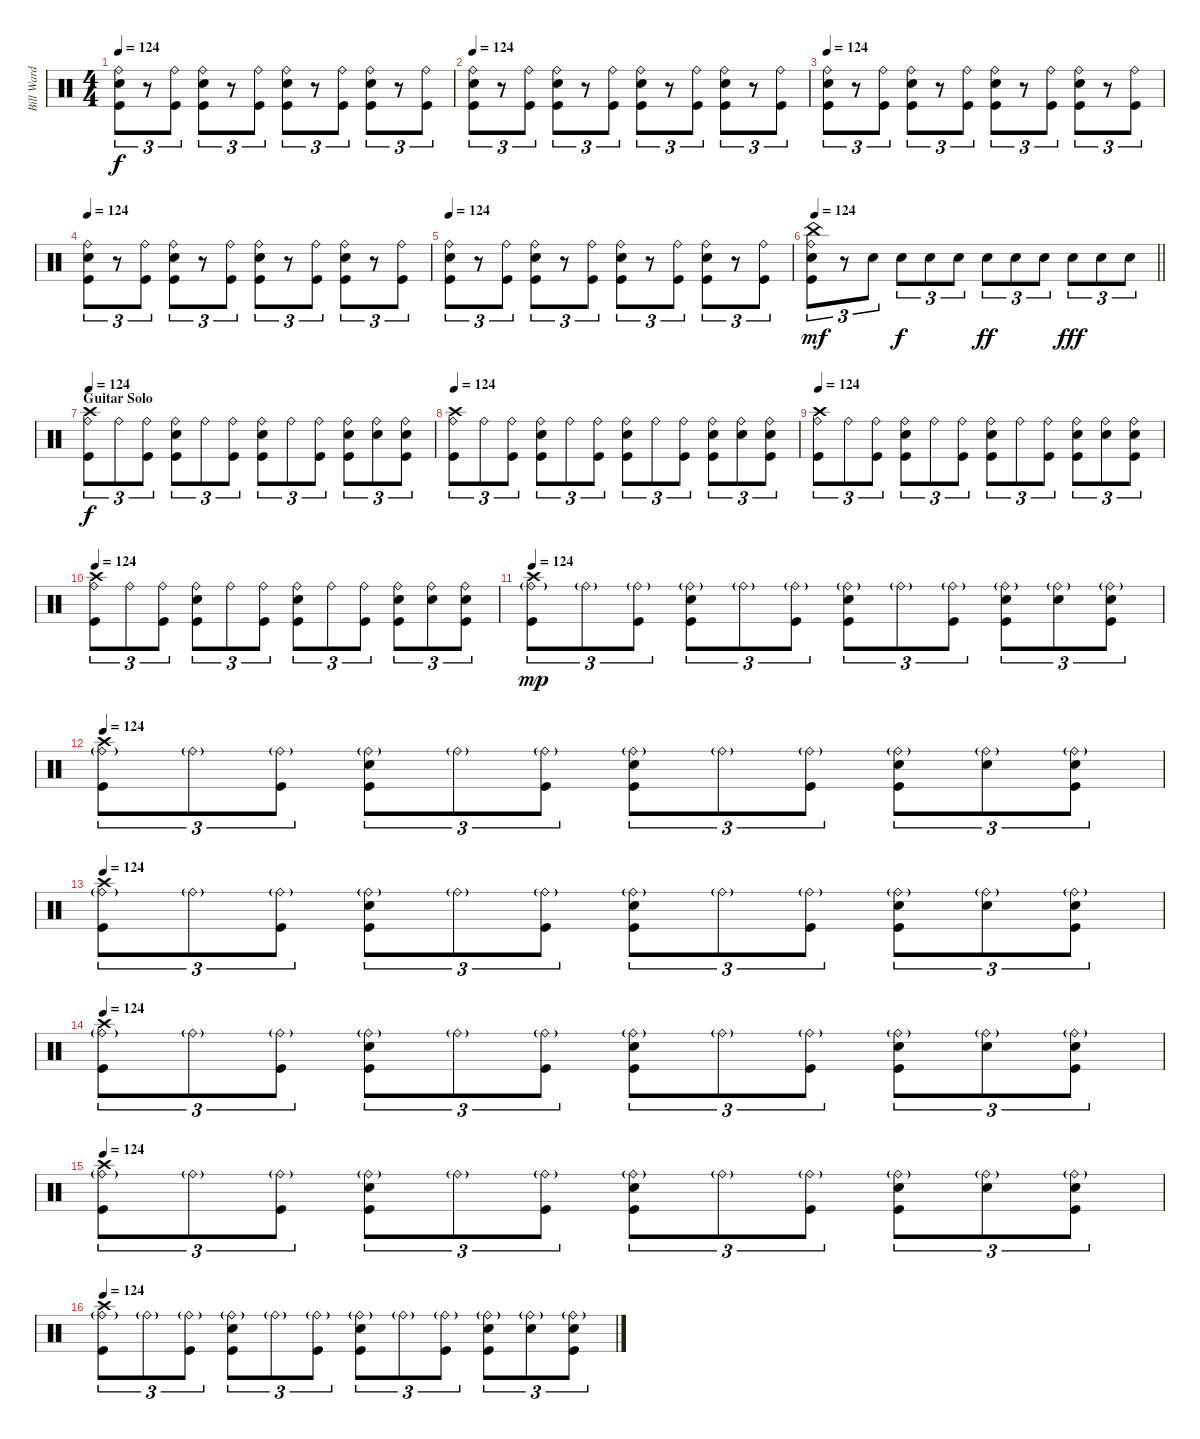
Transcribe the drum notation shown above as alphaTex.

\track ("Bill Ward" "Bill Ward") {instrument percussion}
\staff {score}
\articulation defaults
\ts (4 4)
\tempo 124
\clef neutral
\ks c
("Ride (bell)" "Snare (hit) 2" "Kick (hit)").8{tu (3 2) dy f} r.8{tu (3 2)} ("Ride (bell)" "Kick (hit)").8{tu (3 2)} ("Ride (bell)" "Snare (hit) 2" "Kick (hit)").8{tu (3 2)} r.8{tu (3 2)} ("Ride (bell)" "Kick (hit)").8{tu (3 2)} ("Ride (bell)" "Snare (hit) 2" "Kick (hit)").8{tu (3 2)} r.8{tu (3 2)} ("Ride (bell)" "Kick (hit)").8{tu (3 2)} ("Ride (bell)" "Snare (hit) 2" "Kick (hit)").8{tu (3 2)} r.8{tu (3 2)} ("Ride (bell)" "Kick (hit)").8{tu (3 2)} |
\tempo 124
("Ride (bell)" "Snare (hit) 2" "Kick (hit)").8{tu (3 2)} r.8{tu (3 2)} ("Ride (bell)" "Kick (hit)").8{tu (3 2)} ("Ride (bell)" "Snare (hit) 2" "Kick (hit)").8{tu (3 2)} r.8{tu (3 2)} ("Ride (bell)" "Kick (hit)").8{tu (3 2)} ("Ride (bell)" "Snare (hit) 2" "Kick (hit)").8{tu (3 2)} r.8{tu (3 2)} ("Ride (bell)" "Kick (hit)").8{tu (3 2)} ("Ride (bell)" "Snare (hit) 2" "Kick (hit)").8{tu (3 2)} r.8{tu (3 2)} ("Ride (bell)" "Kick (hit)").8{tu (3 2)} |
\tempo 124
("Ride (bell)" "Snare (hit) 2" "Kick (hit)").8{tu (3 2)} r.8{tu (3 2)} ("Ride (bell)" "Kick (hit)").8{tu (3 2)} ("Ride (bell)" "Snare (hit) 2" "Kick (hit)").8{tu (3 2)} r.8{tu (3 2)} ("Ride (bell)" "Kick (hit)").8{tu (3 2)} ("Ride (bell)" "Snare (hit) 2" "Kick (hit)").8{tu (3 2)} r.8{tu (3 2)} ("Ride (bell)" "Kick (hit)").8{tu (3 2)} ("Ride (bell)" "Snare (hit) 2" "Kick (hit)").8{tu (3 2)} r.8{tu (3 2)} ("Ride (bell)" "Kick (hit)").8{tu (3 2)} |
\tempo 124
("Ride (bell)" "Snare (hit) 2" "Kick (hit)").8{tu (3 2)} r.8{tu (3 2)} ("Ride (bell)" "Kick (hit)").8{tu (3 2)} ("Ride (bell)" "Snare (hit) 2" "Kick (hit)").8{tu (3 2)} r.8{tu (3 2)} ("Ride (bell)" "Kick (hit)").8{tu (3 2)} ("Ride (bell)" "Snare (hit) 2" "Kick (hit)").8{tu (3 2)} r.8{tu (3 2)} ("Ride (bell)" "Kick (hit)").8{tu (3 2)} ("Ride (bell)" "Snare (hit) 2" "Kick (hit)").8{tu (3 2)} r.8{tu (3 2)} ("Ride (bell)" "Kick (hit)").8{tu (3 2)} |
\tempo 124
("Ride (bell)" "Snare (hit) 2" "Kick (hit)").8{tu (3 2)} r.8{tu (3 2)} ("Ride (bell)" "Kick (hit)").8{tu (3 2)} ("Ride (bell)" "Snare (hit) 2" "Kick (hit)").8{tu (3 2)} r.8{tu (3 2)} ("Ride (bell)" "Kick (hit)").8{tu (3 2)} ("Ride (bell)" "Snare (hit) 2" "Kick (hit)").8{tu (3 2)} r.8{tu (3 2)} ("Ride (bell)" "Kick (hit)").8{tu (3 2)} ("Ride (bell)" "Snare (hit) 2" "Kick (hit)").8{tu (3 2)} r.8{tu (3 2)} ("Ride (bell)" "Kick (hit)").8{tu (3 2)} |
\tempo 124
\barLineRight lightlight
("China (hit)" "Ride (bell)" "Snare (hit) 2" "Kick (hit)").8{tu (3 2) dy mf} r.8{tu (3 2)} "Electric Snare (hit)".8{tu (3 2)} "Electric Snare (hit)".8{tu (3 2) dy f} "Electric Snare (hit)".8{tu (3 2)} "Electric Snare (hit)".8{tu (3 2)} "Electric Snare (hit)".8{tu (3 2) dy ff} "Electric Snare (hit)".8{tu (3 2)} "Electric Snare (hit)".8{tu (3 2)} "Electric Snare (hit)".8{tu (3 2) dy fff} "Electric Snare (hit)".8{tu (3 2)} "Electric Snare (hit)".8{tu (3 2)} |
\section ("" "Guitar Solo")
\tempo 124
("Crash high (hit)" "Ride (bell)" "Kick (hit)").8{tu (3 2) dy f volume 10} "Ride (bell)".8{tu (3 2)} ("Ride (bell)" "Kick (hit)").8{tu (3 2)} ("Ride (bell)" "Snare (hit) 2" "Kick (hit)").8{tu (3 2)} "Ride (bell)".8{tu (3 2)} ("Ride (bell)" "Kick (hit)").8{tu (3 2)} ("Ride (bell)" "Snare (hit) 2" "Kick (hit)").8{tu (3 2)} "Ride (bell)".8{tu (3 2)} ("Ride (bell)" "Kick (hit)").8{tu (3 2)} ("Ride (bell)" "Snare (hit) 2" "Kick (hit)").8{tu (3 2)} ("Ride (bell)" "Snare (hit) 2").8{tu (3 2)} ("Ride (bell)" "Snare (hit) 2" "Kick (hit)").8{tu (3 2)} |
\tempo 124
("Crash high (hit)" "Ride (bell)" "Kick (hit)").8{tu (3 2)} "Ride (bell)".8{tu (3 2)} ("Ride (bell)" "Kick (hit)").8{tu (3 2)} ("Ride (bell)" "Snare (hit) 2" "Kick (hit)").8{tu (3 2)} "Ride (bell)".8{tu (3 2)} ("Ride (bell)" "Kick (hit)").8{tu (3 2)} ("Ride (bell)" "Snare (hit) 2" "Kick (hit)").8{tu (3 2)} "Ride (bell)".8{tu (3 2)} ("Ride (bell)" "Kick (hit)").8{tu (3 2)} ("Ride (bell)" "Snare (hit) 2" "Kick (hit)").8{tu (3 2)} ("Ride (bell)" "Snare (hit) 2").8{tu (3 2)} ("Ride (bell)" "Snare (hit) 2" "Kick (hit)").8{tu (3 2)} |
\tempo 124
("Crash high (hit)" "Ride (bell)" "Kick (hit)").8{tu (3 2)} "Ride (bell)".8{tu (3 2)} ("Ride (bell)" "Kick (hit)").8{tu (3 2)} ("Ride (bell)" "Snare (hit) 2" "Kick (hit)").8{tu (3 2)} "Ride (bell)".8{tu (3 2)} ("Ride (bell)" "Kick (hit)").8{tu (3 2)} ("Ride (bell)" "Snare (hit) 2" "Kick (hit)").8{tu (3 2)} "Ride (bell)".8{tu (3 2)} ("Ride (bell)" "Kick (hit)").8{tu (3 2)} ("Ride (bell)" "Snare (hit) 2" "Kick (hit)").8{tu (3 2)} ("Ride (bell)" "Snare (hit) 2").8{tu (3 2)} ("Ride (bell)" "Snare (hit) 2" "Kick (hit)").8{tu (3 2)} |
\tempo 124
("Crash high (hit)" "Ride (bell)" "Kick (hit)").8{tu (3 2)} "Ride (bell)".8{tu (3 2)} ("Ride (bell)" "Kick (hit)").8{tu (3 2)} ("Ride (bell)" "Snare (hit) 2" "Kick (hit)").8{tu (3 2)} "Ride (bell)".8{tu (3 2)} ("Ride (bell)" "Kick (hit)").8{tu (3 2)} ("Ride (bell)" "Snare (hit) 2" "Kick (hit)").8{tu (3 2)} "Ride (bell)".8{tu (3 2)} ("Ride (bell)" "Kick (hit)").8{tu (3 2)} ("Ride (bell)" "Snare (hit) 2" "Kick (hit)").8{tu (3 2)} ("Ride (bell)" "Snare (hit) 2").8{tu (3 2)} ("Ride (bell)" "Snare (hit) 2" "Kick (hit)").8{tu (3 2)} |
\tempo 124
("Crash high (hit)" "Ride (bell)"{g} "Kick (hit)").8{tu (3 2) dy mp} "Ride (bell)"{g}.8{tu (3 2)} ("Ride (bell)"{g} "Kick (hit)").8{tu (3 2)} ("Ride (bell)"{g} "Snare (hit) 2" "Kick (hit)").8{tu (3 2)} "Ride (bell)"{g}.8{tu (3 2)} ("Ride (bell)"{g} "Kick (hit)").8{tu (3 2)} ("Ride (bell)"{g} "Snare (hit) 2" "Kick (hit)").8{tu (3 2)} "Ride (bell)"{g}.8{tu (3 2)} ("Ride (bell)"{g} "Kick (hit)").8{tu (3 2)} ("Ride (bell)"{g} "Snare (hit) 2" "Kick (hit)").8{tu (3 2)} ("Ride (bell)"{g} "Snare (hit) 2").8{tu (3 2)} ("Ride (bell)"{g} "Snare (hit) 2" "Kick (hit)").8{tu (3 2)} |
\tempo 124
("Crash high (hit)" "Ride (bell)"{g} "Kick (hit)").8{tu (3 2)} "Ride (bell)"{g}.8{tu (3 2)} ("Ride (bell)"{g} "Kick (hit)").8{tu (3 2)} ("Ride (bell)"{g} "Snare (hit) 2" "Kick (hit)").8{tu (3 2)} "Ride (bell)"{g}.8{tu (3 2)} ("Ride (bell)"{g} "Kick (hit)").8{tu (3 2)} ("Ride (bell)"{g} "Snare (hit) 2" "Kick (hit)").8{tu (3 2)} "Ride (bell)"{g}.8{tu (3 2)} ("Ride (bell)"{g} "Kick (hit)").8{tu (3 2)} ("Ride (bell)"{g} "Snare (hit) 2" "Kick (hit)").8{tu (3 2)} ("Ride (bell)"{g} "Snare (hit) 2").8{tu (3 2)} ("Ride (bell)"{g} "Snare (hit) 2" "Kick (hit)").8{tu (3 2)} |
\tempo 124
("Crash high (hit)" "Ride (bell)"{g} "Kick (hit)").8{tu (3 2)} "Ride (bell)"{g}.8{tu (3 2)} ("Ride (bell)"{g} "Kick (hit)").8{tu (3 2)} ("Ride (bell)"{g} "Snare (hit) 2" "Kick (hit)").8{tu (3 2)} "Ride (bell)"{g}.8{tu (3 2)} ("Ride (bell)"{g} "Kick (hit)").8{tu (3 2)} ("Ride (bell)"{g} "Snare (hit) 2" "Kick (hit)").8{tu (3 2)} "Ride (bell)"{g}.8{tu (3 2)} ("Ride (bell)"{g} "Kick (hit)").8{tu (3 2)} ("Ride (bell)"{g} "Snare (hit) 2" "Kick (hit)").8{tu (3 2)} ("Ride (bell)"{g} "Snare (hit) 2").8{tu (3 2)} ("Ride (bell)"{g} "Snare (hit) 2" "Kick (hit)").8{tu (3 2)} |
\tempo 124
("Crash high (hit)" "Ride (bell)"{g} "Kick (hit)").8{tu (3 2)} "Ride (bell)"{g}.8{tu (3 2)} ("Ride (bell)"{g} "Kick (hit)").8{tu (3 2)} ("Ride (bell)"{g} "Snare (hit) 2" "Kick (hit)").8{tu (3 2)} "Ride (bell)"{g}.8{tu (3 2)} ("Ride (bell)"{g} "Kick (hit)").8{tu (3 2)} ("Ride (bell)"{g} "Snare (hit) 2" "Kick (hit)").8{tu (3 2)} "Ride (bell)"{g}.8{tu (3 2)} ("Ride (bell)"{g} "Kick (hit)").8{tu (3 2)} ("Ride (bell)"{g} "Snare (hit) 2" "Kick (hit)").8{tu (3 2)} ("Ride (bell)"{g} "Snare (hit) 2").8{tu (3 2)} ("Ride (bell)"{g} "Snare (hit) 2" "Kick (hit)").8{tu (3 2)} |
\tempo 124
("Crash high (hit)" "Ride (bell)"{g} "Kick (hit)").8{tu (3 2)} "Ride (bell)"{g}.8{tu (3 2)} ("Ride (bell)"{g} "Kick (hit)").8{tu (3 2)} ("Ride (bell)"{g} "Snare (hit) 2" "Kick (hit)").8{tu (3 2)} "Ride (bell)"{g}.8{tu (3 2)} ("Ride (bell)"{g} "Kick (hit)").8{tu (3 2)} ("Ride (bell)"{g} "Snare (hit) 2" "Kick (hit)").8{tu (3 2)} "Ride (bell)"{g}.8{tu (3 2)} ("Ride (bell)"{g} "Kick (hit)").8{tu (3 2)} ("Ride (bell)"{g} "Snare (hit) 2" "Kick (hit)").8{tu (3 2)} ("Ride (bell)"{g} "Snare (hit) 2").8{tu (3 2)} ("Ride (bell)"{g} "Snare (hit) 2" "Kick (hit)").8{tu (3 2)} |
\tempo 124
("Crash high (hit)" "Ride (bell)"{g} "Kick (hit)").8{tu (3 2)} "Ride (bell)"{g}.8{tu (3 2)} ("Ride (bell)"{g} "Kick (hit)").8{tu (3 2)} ("Ride (bell)"{g} "Snare (hit) 2" "Kick (hit)").8{tu (3 2)} "Ride (bell)"{g}.8{tu (3 2)} ("Ride (bell)"{g} "Kick (hit)").8{tu (3 2)} ("Ride (bell)"{g} "Snare (hit) 2" "Kick (hit)").8{tu (3 2)} "Ride (bell)"{g}.8{tu (3 2)} ("Ride (bell)"{g} "Kick (hit)").8{tu (3 2)} ("Ride (bell)"{g} "Snare (hit) 2" "Kick (hit)").8{tu (3 2)} ("Ride (bell)"{g} "Snare (hit) 2").8{tu (3 2)} ("Ride (bell)"{g} "Snare (hit) 2" "Kick (hit)").8{tu (3 2)}
